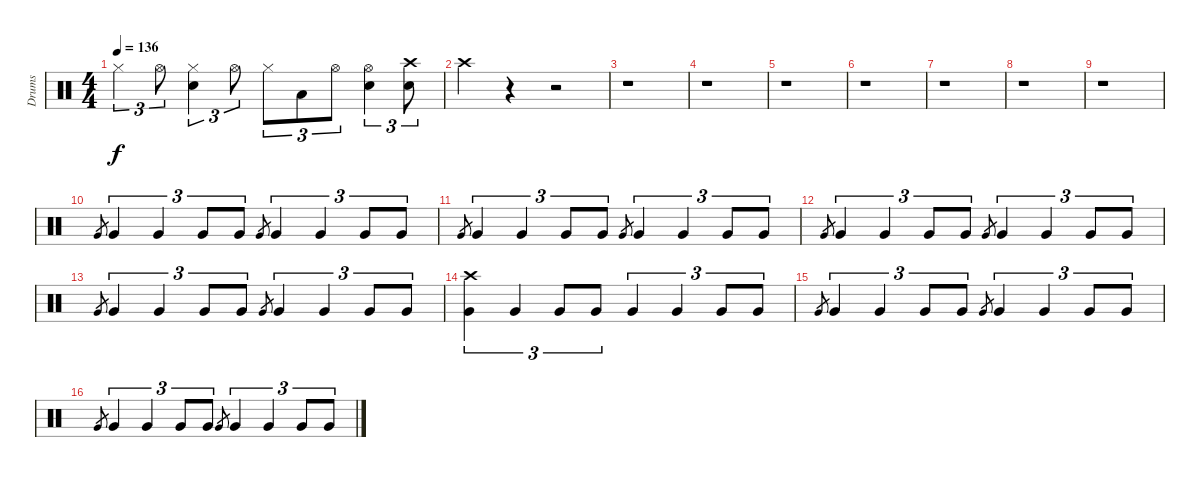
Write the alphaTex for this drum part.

\track ("Drums" "Drums") {instrument percussion}
\staff {score}
\articulation defaults
\ts (4 4)
\tempo 136
\clef neutral
\ks c "Hi-Hat (closed)".4{tu (3 2) dy f} "Hi-Hat (open)".8{tu (3 2)}
("Hi-Hat (closed)" "Snare (hit) 2").4{tu (3 2)} "Hi-Hat (open)".8{tu (3 2)} "Hi-Hat (closed)".8{tu (3 2)} "Low Tom (hit)".8{tu (3 2)} "Hi-Hat (open)".8{tu (3 2)} ("Hi-Hat (open)" "Snare (hit) 2").4{tu (3 2)} ("Crash high (hit)" "Snare (hit) 2").8{tu (3 2)} |
"Crash high (hit)".4 r.4 r.2 |
r.1 |
r.1 |
r.1 |
r.1 |
r.1 |
r.1 |
r.1{volume 10} |
"Very Low Tom (hit)".8{gr} "Very Low Tom (hit)".4{tu (3 2)} "Very Low Tom (hit)".4{tu (3 2)} "Very Low Tom (hit)".8{tu (3 2)} "Very Low Tom (hit)".8{tu (3 2)} "Very Low Tom (hit)".8{gr} "Very Low Tom (hit)".4{tu (3 2)} "Very Low Tom (hit)".4{tu (3 2)} "Very Low Tom (hit)".8{tu (3 2)} "Very Low Tom (hit)".8{tu (3 2)} |
"Very Low Tom (hit)".8{gr} "Very Low Tom (hit)".4{tu (3 2)} "Very Low Tom (hit)".4{tu (3 2)} "Very Low Tom (hit)".8{tu (3 2)} "Very Low Tom (hit)".8{tu (3 2)} "Very Low Tom (hit)".8{gr} "Very Low Tom (hit)".4{tu (3 2)} "Very Low Tom (hit)".4{tu (3 2)} "Very Low Tom (hit)".8{tu (3 2)} "Very Low Tom (hit)".8{tu (3 2)} |
"Very Low Tom (hit)".8{gr} "Very Low Tom (hit)".4{tu (3 2)} "Very Low Tom (hit)".4{tu (3 2)} "Very Low Tom (hit)".8{tu (3 2)} "Very Low Tom (hit)".8{tu (3 2)} "Very Low Tom (hit)".8{gr} "Very Low Tom (hit)".4{tu (3 2)} "Very Low Tom (hit)".4{tu (3 2)} "Very Low Tom (hit)".8{tu (3 2)} "Very Low Tom (hit)".8{tu (3 2)} |
"Very Low Tom (hit)".8{gr} "Very Low Tom (hit)".4{tu (3 2)} "Very Low Tom (hit)".4{tu (3 2)} "Very Low Tom (hit)".8{tu (3 2)} "Very Low Tom (hit)".8{tu (3 2)} "Very Low Tom (hit)".8{gr} "Very Low Tom (hit)".4{tu (3 2)} "Very Low Tom (hit)".4{tu (3 2)} "Very Low Tom (hit)".8{tu (3 2)} "Very Low Tom (hit)".8{tu (3 2)} |
("Crash high (hit)" "Very Low Tom (hit)").4{tu (3 2)} "Very Low Tom (hit)".4{tu (3 2)} "Very Low Tom (hit)".8{tu (3 2)} "Very Low Tom (hit)".8{tu (3 2)} "Very Low Tom (hit)".4{tu (3 2)} "Very Low Tom (hit)".4{tu (3 2)} "Very Low Tom (hit)".8{tu (3 2)} "Very Low Tom (hit)".8{tu (3 2)} |
"Very Low Tom (hit)".8{gr} "Very Low Tom (hit)".4{tu (3 2)} "Very Low Tom (hit)".4{tu (3 2)} "Very Low Tom (hit)".8{tu (3 2)} "Very Low Tom (hit)".8{tu (3 2)} "Very Low Tom (hit)".8{gr} "Very Low Tom (hit)".4{tu (3 2)} "Very Low Tom (hit)".4{tu (3 2)} "Very Low Tom (hit)".8{tu (3 2)} "Very Low Tom (hit)".8{tu (3 2)} |
"Very Low Tom (hit)".8{gr} "Very Low Tom (hit)".4{tu (3 2)} "Very Low Tom (hit)".4{tu (3 2)} "Very Low Tom (hit)".8{tu (3 2)} "Very Low Tom (hit)".8{tu (3 2)} "Very Low Tom (hit)".8{gr} "Very Low Tom (hit)".4{tu (3 2)} "Very Low Tom (hit)".4{tu (3 2)} "Very Low Tom (hit)".8{tu (3 2)} "Very Low Tom (hit)".8{tu (3 2)}
